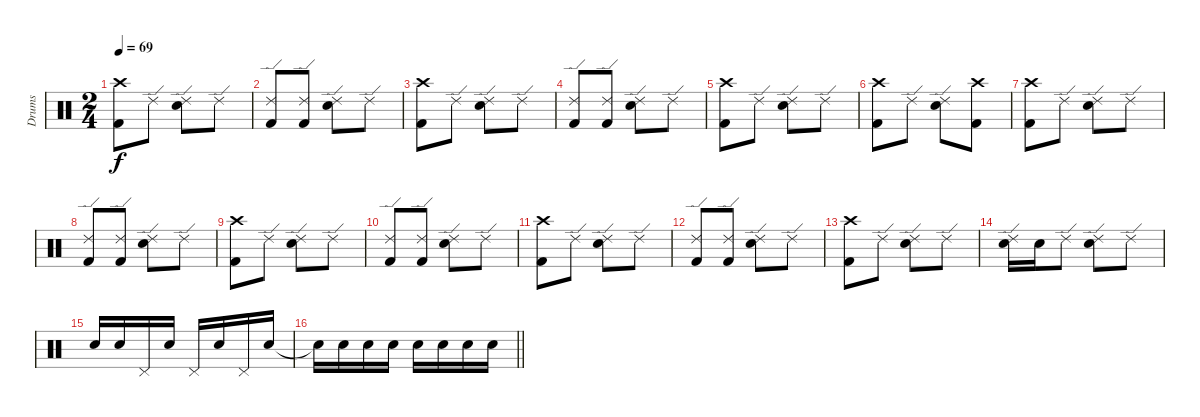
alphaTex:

\track ("Drums" "Drums") {instrument percussion}
\staff {score}
\articulation defaults
\ts (2 4)
\tempo 69
\clef neutral
\ks c
("Kick (hit) 2" "Crash high (hit)").8{dy f} "Ride (edge) 2".8 ("Electric Snare (hit)" "Ride (edge) 2").8 "Ride (edge) 2".8 |
("Kick (hit) 2" "Ride (edge) 2").8 ("Kick (hit) 2" "Ride (edge) 2").8 ("Electric Snare (hit)" "Ride (edge) 2").8 "Ride (edge) 2".8 |
("Kick (hit) 2" "Crash high (hit)").8 "Ride (edge) 2".8 ("Electric Snare (hit)" "Ride (edge) 2").8 "Ride (edge) 2".8 |
("Kick (hit) 2" "Ride (edge) 2").8 ("Kick (hit) 2" "Ride (edge) 2").8 ("Electric Snare (hit)" "Ride (edge) 2").8 "Ride (edge) 2".8 |
("Kick (hit) 2" "Crash high (hit)").8 "Ride (edge) 2".8 ("Electric Snare (hit)" "Ride (edge) 2").8 "Ride (edge) 2".8 |
("Kick (hit) 2" "Crash high (hit)").8 "Ride (edge) 2".8 ("Electric Snare (hit)" "Ride (edge) 2").8 ("Kick (hit) 2" "Crash high (hit)").8 |
("Kick (hit) 2" "Crash high (hit)").8 "Ride (edge) 2".8 ("Electric Snare (hit)" "Ride (edge) 2").8 "Ride (edge) 2".8 |
("Kick (hit) 2" "Ride (edge) 2").8 ("Kick (hit) 2" "Ride (edge) 2").8 ("Electric Snare (hit)" "Ride (edge) 2").8 "Ride (edge) 2".8 |
("Kick (hit) 2" "Crash high (hit)").8 "Ride (edge) 2".8 ("Electric Snare (hit)" "Ride (edge) 2").8 "Ride (edge) 2".8 |
("Kick (hit) 2" "Ride (edge) 2").8 ("Kick (hit) 2" "Ride (edge) 2").8 ("Electric Snare (hit)" "Ride (edge) 2").8 "Ride (edge) 2".8 |
("Kick (hit) 2" "Crash high (hit)").8 "Ride (edge) 2".8 ("Electric Snare (hit)" "Ride (edge) 2").8 "Ride (edge) 2".8 |
("Kick (hit) 2" "Ride (edge) 2").8 ("Kick (hit) 2" "Ride (edge) 2").8 ("Electric Snare (hit)" "Ride (edge) 2").8 "Ride (edge) 2".8 |
("Kick (hit) 2" "Crash high (hit)").8 "Ride (edge) 2".8 ("Electric Snare (hit)" "Ride (edge) 2").8 "Ride (edge) 2".8 |
("Electric Snare (hit)" "Ride (edge) 2").16 "Electric Snare (hit)".16 "Ride (edge) 2".8 ("Electric Snare (hit)" "Ride (edge) 2").8 "Ride (edge) 2".8 |
"Electric Snare (hit)".16 "Electric Snare (hit)".16 "Pedal Hi-Hat (hit)".16 "Electric Snare (hit)".16 "Pedal Hi-Hat (hit)".16 "Electric Snare (hit)".16 "Pedal Hi-Hat (hit)".16 "Electric Snare (hit)".16 |
\barLineRight lightlight "Electric Snare (hit)"{t}.16 "Electric Snare (hit)".16 "Electric Snare (hit)".16 "Electric Snare (hit)".16 "Electric Snare (hit)".16 "Electric Snare (hit)".16 "Electric Snare (hit)".16 "Electric Snare (hit)".16
